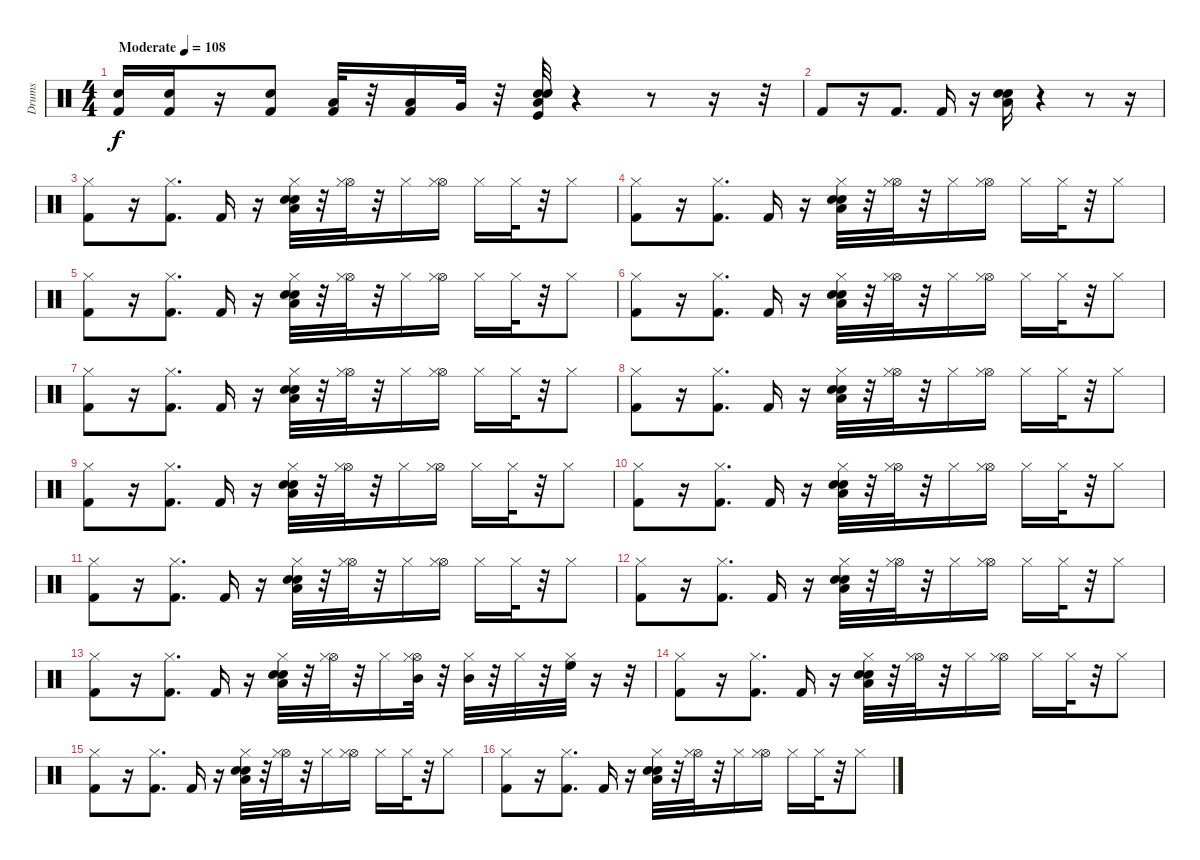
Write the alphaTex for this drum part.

\track ("Drums" "Drums") {instrument percussion}
\staff {score}
\articulation defaults
\ts (4 4)
\tempo (108 "Moderate")
\clef neutral
\ks c
("Snare (hit) 2" "Kick (hit) 2").16{dy f} ("Electric Snare (hit)" "Kick (hit) 2").16 r.16 ("Kick (hit) 2" "Snare (hit) 2").8 ("Kick (hit) 2" "Low Floor Tom (hit)").32 r.32 ("Low Floor Tom (hit)" "Kick (hit) 2").16 "Very Low Tom (hit)".32 r.32 ("Low Floor Tom (hit)" "Electric Snare (hit)" "Snare (hit) 2" "Kick (hit)").32 r.4 r.8 r.16 r.32 |
"Kick (hit) 2".8 r.16 "Kick (hit) 2".8{d} "Kick (hit) 2".16 r.16 ("Low Floor Tom (hit)" "Electric Snare (hit)" "Snare (hit) 2").16 r.4 r.8 r.16 |
("Hi-Hat (closed)" "Kick (hit) 2").8 r.16 ("Kick (hit) 2" "Hi-Hat (closed)").8{d} "Kick (hit) 2".16 r.16 ("Low Floor Tom (hit)" "Electric Snare (hit)" "Snare (hit) 2" "Hi-Hat (closed)").32 r.32 ("Hi-Hat (open)" "Hi-Hat (closed)").32 r.32 "Hi-Hat (closed)".16 ("Hi-Hat (open)" "Hi-Hat (closed)").16 "Hi-Hat (closed)".16 "Hi-Hat (closed)".32 r.32 "Hi-Hat (closed)".8 |
("Hi-Hat (closed)" "Kick (hit) 2").8 r.16 ("Kick (hit) 2" "Hi-Hat (closed)").8{d} "Kick (hit) 2".16 r.16 ("Low Floor Tom (hit)" "Electric Snare (hit)" "Snare (hit) 2" "Hi-Hat (closed)").32 r.32 ("Hi-Hat (open)" "Hi-Hat (closed)").32 r.32 "Hi-Hat (closed)".16 ("Hi-Hat (open)" "Hi-Hat (closed)").16 "Hi-Hat (closed)".16 "Hi-Hat (closed)".32 r.32 "Hi-Hat (closed)".8 |
("Hi-Hat (closed)" "Kick (hit) 2").8 r.16 ("Kick (hit) 2" "Hi-Hat (closed)").8{d} "Kick (hit) 2".16 r.16 ("Low Floor Tom (hit)" "Electric Snare (hit)" "Snare (hit) 2" "Hi-Hat (closed)").32 r.32 ("Hi-Hat (open)" "Hi-Hat (closed)").32 r.32 "Hi-Hat (closed)".16 ("Hi-Hat (open)" "Hi-Hat (closed)").16 "Hi-Hat (closed)".16 "Hi-Hat (closed)".32 r.32 "Hi-Hat (closed)".8 |
("Hi-Hat (closed)" "Kick (hit) 2").8 r.16 ("Kick (hit) 2" "Hi-Hat (closed)").8{d} "Kick (hit) 2".16 r.16 ("Low Floor Tom (hit)" "Electric Snare (hit)" "Snare (hit) 2" "Hi-Hat (closed)").32 r.32 ("Hi-Hat (open)" "Hi-Hat (closed)").32 r.32 "Hi-Hat (closed)".16 ("Hi-Hat (open)" "Hi-Hat (closed)").16 "Hi-Hat (closed)".16 "Hi-Hat (closed)".32 r.32 "Hi-Hat (closed)".8 |
("Hi-Hat (closed)" "Kick (hit) 2").8 r.16 ("Kick (hit) 2" "Hi-Hat (closed)").8{d} "Kick (hit) 2".16 r.16 ("Low Floor Tom (hit)" "Electric Snare (hit)" "Snare (hit) 2" "Hi-Hat (closed)").32 r.32 ("Hi-Hat (open)" "Hi-Hat (closed)").32 r.32 "Hi-Hat (closed)".16 ("Hi-Hat (open)" "Hi-Hat (closed)").16 "Hi-Hat (closed)".16 "Hi-Hat (closed)".32 r.32 "Hi-Hat (closed)".8 |
("Hi-Hat (closed)" "Kick (hit) 2").8 r.16 ("Kick (hit) 2" "Hi-Hat (closed)").8{d} "Kick (hit) 2".16 r.16 ("Low Floor Tom (hit)" "Electric Snare (hit)" "Snare (hit) 2" "Hi-Hat (closed)").32 r.32 ("Hi-Hat (open)" "Hi-Hat (closed)").32 r.32 "Hi-Hat (closed)".16 ("Hi-Hat (open)" "Hi-Hat (closed)").16 "Hi-Hat (closed)".16 "Hi-Hat (closed)".32 r.32 "Hi-Hat (closed)".8 |
("Hi-Hat (closed)" "Kick (hit) 2").8 r.16 ("Kick (hit) 2" "Hi-Hat (closed)").8{d} "Kick (hit) 2".16 r.16 ("Low Floor Tom (hit)" "Electric Snare (hit)" "Snare (hit) 2" "Hi-Hat (closed)").32 r.32 ("Hi-Hat (open)" "Hi-Hat (closed)").32 r.32 "Hi-Hat (closed)".16 ("Hi-Hat (open)" "Hi-Hat (closed)").16 "Hi-Hat (closed)".16 "Hi-Hat (closed)".32 r.32 "Hi-Hat (closed)".8 |
("Hi-Hat (closed)" "Kick (hit) 2").8 r.16 ("Kick (hit) 2" "Hi-Hat (closed)").8{d} "Kick (hit) 2".16 r.16 ("Low Floor Tom (hit)" "Electric Snare (hit)" "Snare (hit) 2" "Hi-Hat (closed)").32 r.32 ("Hi-Hat (open)" "Hi-Hat (closed)").32 r.32 "Hi-Hat (closed)".16 ("Hi-Hat (open)" "Hi-Hat (closed)").16 "Hi-Hat (closed)".16 "Hi-Hat (closed)".32 r.32 "Hi-Hat (closed)".8 |
("Hi-Hat (closed)" "Kick (hit) 2").8 r.16 ("Kick (hit) 2" "Hi-Hat (closed)").8{d} "Kick (hit) 2".16 r.16 ("Low Floor Tom (hit)" "Electric Snare (hit)" "Snare (hit) 2" "Hi-Hat (closed)").32 r.32 ("Hi-Hat (open)" "Hi-Hat (closed)").32 r.32 "Hi-Hat (closed)".16 ("Hi-Hat (open)" "Hi-Hat (closed)").16 "Hi-Hat (closed)".16 "Hi-Hat (closed)".32 r.32 "Hi-Hat (closed)".8 |
("Hi-Hat (closed)" "Kick (hit) 2").8 r.16 ("Kick (hit) 2" "Hi-Hat (closed)").8{d} "Kick (hit) 2".16 r.16 ("Low Floor Tom (hit)" "Electric Snare (hit)" "Snare (hit) 2" "Hi-Hat (closed)").32 r.32 ("Hi-Hat (open)" "Hi-Hat (closed)").32 r.32 "Hi-Hat (closed)".16 ("Hi-Hat (open)" "Hi-Hat (closed)").16 "Hi-Hat (closed)".16 "Hi-Hat (closed)".32 r.32 "Hi-Hat (closed)".8 |
("Hi-Hat (closed)" "Kick (hit) 2").8 r.16 ("Kick (hit) 2" "Hi-Hat (closed)").8{d} "Kick (hit) 2".16 r.16 ("Low Floor Tom (hit)" "Electric Snare (hit)" "Snare (hit) 2" "Hi-Hat (closed)").32 r.32 ("Hi-Hat (open)" "Hi-Hat (closed)").32 r.32 "Hi-Hat (closed)".16 ("Hi-Hat (open)" "Hi-Hat (closed)" "Mid Tom (hit)").32 r.32 ("Hi-Hat (closed)" "Mid Tom (hit)").32 r.32 "Hi-Hat (closed)".32 r.32 ("Hi-Hat (closed)" "High Floor Tom (hit)").32 r.16 r.32 |
("Hi-Hat (closed)" "Kick (hit) 2").8 r.16 ("Kick (hit) 2" "Hi-Hat (closed)").8{d} "Kick (hit) 2".16 r.16 ("Low Floor Tom (hit)" "Electric Snare (hit)" "Snare (hit) 2" "Hi-Hat (closed)").32 r.32 ("Hi-Hat (open)" "Hi-Hat (closed)").32 r.32 "Hi-Hat (closed)".16 ("Hi-Hat (open)" "Hi-Hat (closed)").16 "Hi-Hat (closed)".16 "Hi-Hat (closed)".32 r.32 "Hi-Hat (closed)".8 |
("Hi-Hat (closed)" "Kick (hit) 2").8 r.16 ("Kick (hit) 2" "Hi-Hat (closed)").8{d} "Kick (hit) 2".16 r.16 ("Low Floor Tom (hit)" "Electric Snare (hit)" "Snare (hit) 2" "Hi-Hat (closed)").32 r.32 ("Hi-Hat (open)" "Hi-Hat (closed)").32 r.32 "Hi-Hat (closed)".16 ("Hi-Hat (open)" "Hi-Hat (closed)").16 "Hi-Hat (closed)".16 "Hi-Hat (closed)".32 r.32 "Hi-Hat (closed)".8 |
("Hi-Hat (closed)" "Kick (hit) 2").8 r.16 ("Kick (hit) 2" "Hi-Hat (closed)").8{d} "Kick (hit) 2".16 r.16 ("Low Floor Tom (hit)" "Electric Snare (hit)" "Snare (hit) 2" "Hi-Hat (closed)").32 r.32 ("Hi-Hat (open)" "Hi-Hat (closed)").32 r.32 "Hi-Hat (closed)".16 ("Hi-Hat (open)" "Hi-Hat (closed)").16 "Hi-Hat (closed)".16 "Hi-Hat (closed)".32 r.32 "Hi-Hat (closed)".8
